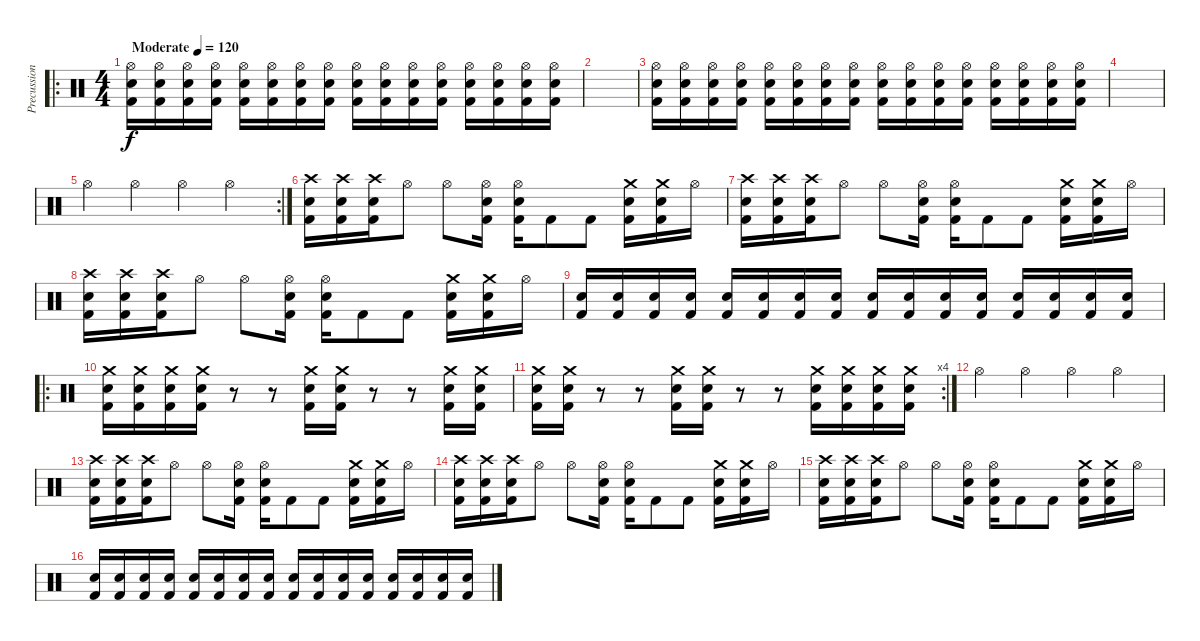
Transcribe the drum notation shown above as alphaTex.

\track ("Precussion" "Precussion") {instrument percussion}
\staff {score}
\articulation defaults
\ro
\ts (4 4)
\tempo (120 "Moderate")
\clef neutral
\ks c
("Hi-Hat (open)" "Kick (hit) 2" "Electric Snare (hit)").16{dy f} ("Hi-Hat (open)" "Kick (hit) 2" "Electric Snare (hit)").16 ("Hi-Hat (open)" "Kick (hit) 2" "Electric Snare (hit)").16 ("Hi-Hat (open)" "Kick (hit) 2" "Electric Snare (hit)").16 ("Hi-Hat (open)" "Kick (hit) 2" "Electric Snare (hit)").16 ("Hi-Hat (open)" "Kick (hit) 2" "Electric Snare (hit)").16 ("Hi-Hat (open)" "Kick (hit) 2" "Electric Snare (hit)").16 ("Hi-Hat (open)" "Kick (hit) 2" "Electric Snare (hit)").16 ("Hi-Hat (open)" "Kick (hit) 2" "Electric Snare (hit)").16 ("Hi-Hat (open)" "Kick (hit) 2" "Electric Snare (hit)").16 ("Hi-Hat (open)" "Kick (hit) 2" "Electric Snare (hit)").16 ("Hi-Hat (open)" "Kick (hit) 2" "Electric Snare (hit)").16 ("Hi-Hat (open)" "Kick (hit) 2" "Electric Snare (hit)").16 ("Hi-Hat (open)" "Kick (hit) 2" "Electric Snare (hit)").16 ("Hi-Hat (open)" "Kick (hit) 2" "Electric Snare (hit)").16 ("Hi-Hat (open)" "Kick (hit) 2" "Electric Snare (hit)").16 |
|
("Hi-Hat (open)" "Kick (hit) 2" "Electric Snare (hit)").16 ("Hi-Hat (open)" "Kick (hit) 2" "Electric Snare (hit)").16 ("Hi-Hat (open)" "Kick (hit) 2" "Electric Snare (hit)").16 ("Hi-Hat (open)" "Kick (hit) 2" "Electric Snare (hit)").16 ("Hi-Hat (open)" "Kick (hit) 2" "Electric Snare (hit)").16 ("Hi-Hat (open)" "Kick (hit) 2" "Electric Snare (hit)").16 ("Hi-Hat (open)" "Kick (hit) 2" "Electric Snare (hit)").16 ("Hi-Hat (open)" "Kick (hit) 2" "Electric Snare (hit)").16 ("Hi-Hat (open)" "Kick (hit) 2" "Electric Snare (hit)").16 ("Hi-Hat (open)" "Kick (hit) 2" "Electric Snare (hit)").16 ("Hi-Hat (open)" "Kick (hit) 2" "Electric Snare (hit)").16 ("Hi-Hat (open)" "Kick (hit) 2" "Electric Snare (hit)").16 ("Hi-Hat (open)" "Kick (hit) 2" "Electric Snare (hit)").16 ("Hi-Hat (open)" "Kick (hit) 2" "Electric Snare (hit)").16 ("Hi-Hat (open)" "Kick (hit) 2" "Electric Snare (hit)").16 ("Hi-Hat (open)" "Kick (hit) 2" "Electric Snare (hit)").16 |
|
\rc 2 "Hi-Hat (open)".4 "Hi-Hat (open)".4 "Hi-Hat (open)".4 "Hi-Hat (open)".4
|
("Kick (hit) 2" "Electric Snare (hit)" "Crash high (hit)").16 ("Kick (hit) 2" "Electric Snare (hit)" "Crash high (hit)").16 ("Crash high (hit)" "Kick (hit) 2" "Snare (hit) 2").16 "Hi-Hat (open)".8 "Hi-Hat (open)".8 ("Hi-Hat (open)" "Kick (hit) 2" "Electric Snare (hit)").16 ("Hi-Hat (open)" "Kick (hit) 2" "Electric Snare (hit)").16 "Kick (hit) 2".8 "Kick (hit) 2".8 ("Kick (hit) 2" "Electric Snare (hit)" "Crash medium (hit)").16 ("Kick (hit) 2" "Electric Snare (hit)" "Crash medium (hit)").16 "Hi-Hat (open)".16 |
("Kick (hit) 2" "Electric Snare (hit)" "Crash high (hit)").16 ("Kick (hit) 2" "Electric Snare (hit)" "Crash high (hit)").16 ("Crash high (hit)" "Kick (hit) 2" "Snare (hit) 2").16 "Hi-Hat (open)".8 "Hi-Hat (open)".8 ("Hi-Hat (open)" "Kick (hit) 2" "Electric Snare (hit)").16 ("Hi-Hat (open)" "Kick (hit) 2" "Electric Snare (hit)").16 "Kick (hit) 2".8 "Kick (hit) 2".8 ("Kick (hit) 2" "Electric Snare (hit)" "Crash medium (hit)").16 ("Kick (hit) 2" "Electric Snare (hit)" "Crash medium (hit)").16 "Hi-Hat (open)".16 |
("Kick (hit) 2" "Electric Snare (hit)" "Crash high (hit)").16 ("Kick (hit) 2" "Electric Snare (hit)" "Crash high (hit)").16 ("Crash high (hit)" "Kick (hit) 2" "Snare (hit) 2").16 "Hi-Hat (open)".8 "Hi-Hat (open)".8 ("Hi-Hat (open)" "Kick (hit) 2" "Electric Snare (hit)").16 ("Hi-Hat (open)" "Kick (hit) 2" "Electric Snare (hit)").16 "Kick (hit) 2".8 "Kick (hit) 2".8 ("Kick (hit) 2" "Electric Snare (hit)" "Crash medium (hit)").16 ("Kick (hit) 2" "Electric Snare (hit)" "Crash medium (hit)").16 "Hi-Hat (open)".16 |
("Kick (hit) 2" "Electric Snare (hit)").16 ("Kick (hit) 2" "Electric Snare (hit)").16 ("Kick (hit) 2" "Electric Snare (hit)").16 ("Kick (hit) 2" "Electric Snare (hit)").16 ("Kick (hit) 2" "Electric Snare (hit)").16 ("Kick (hit) 2" "Electric Snare (hit)").16 ("Kick (hit) 2" "Electric Snare (hit)").16 ("Kick (hit) 2" "Electric Snare (hit)").16 ("Kick (hit) 2" "Electric Snare (hit)").16 ("Kick (hit) 2" "Electric Snare (hit)").16 ("Kick (hit) 2" "Electric Snare (hit)").16 ("Kick (hit) 2" "Electric Snare (hit)").16 ("Kick (hit) 2" "Electric Snare (hit)").16 ("Kick (hit) 2" "Electric Snare (hit)").16 ("Kick (hit) 2" "Electric Snare (hit)").16 ("Kick (hit) 2" "Electric Snare (hit)").16 |
\ro
("Kick (hit) 2" "Crash medium (hit)" "Electric Snare (hit)").16 ("Kick (hit) 2" "Crash medium (hit)" "Electric Snare (hit)").16 ("Kick (hit) 2" "Crash medium (hit)" "Electric Snare (hit)").16 ("Kick (hit) 2" "Crash medium (hit)" "Electric Snare (hit)").16 r.8 r.8 ("Kick (hit) 2" "Crash medium (hit)" "Electric Snare (hit)").16 ("Kick (hit) 2" "Crash medium (hit)" "Electric Snare (hit)").16 r.8 r.8 ("Kick (hit) 2" "Crash medium (hit)" "Electric Snare (hit)").16 ("Kick (hit) 2" "Crash medium (hit)" "Electric Snare (hit)").16 |
\rc 4
("Kick (hit) 2" "Crash medium (hit)" "Electric Snare (hit)").16 ("Kick (hit) 2" "Crash medium (hit)" "Electric Snare (hit)").16 r.8 r.8 ("Kick (hit) 2" "Crash medium (hit)" "Electric Snare (hit)").16 ("Kick (hit) 2" "Crash medium (hit)" "Electric Snare (hit)").16 r.8 r.8 ("Kick (hit) 2" "Crash medium (hit)" "Electric Snare (hit)").16 ("Kick (hit) 2" "Crash medium (hit)" "Electric Snare (hit)").16 ("Kick (hit) 2" "Crash medium (hit)" "Electric Snare (hit)").16 ("Kick (hit) 2" "Crash medium (hit)" "Electric Snare (hit)").16 |
"Hi-Hat (open)".4 "Hi-Hat (open)".4 "Hi-Hat (open)".4 "Hi-Hat (open)".4 |
("Kick (hit) 2" "Electric Snare (hit)" "Crash high (hit)").16 ("Kick (hit) 2" "Electric Snare (hit)" "Crash high (hit)").16 ("Crash high (hit)" "Kick (hit) 2" "Snare (hit) 2").16 "Hi-Hat (open)".8 "Hi-Hat (open)".8 ("Hi-Hat (open)" "Kick (hit) 2" "Electric Snare (hit)").16 ("Hi-Hat (open)" "Kick (hit) 2" "Electric Snare (hit)").16 "Kick (hit) 2".8 "Kick (hit) 2".8 ("Kick (hit) 2" "Electric Snare (hit)" "Crash medium (hit)").16 ("Kick (hit) 2" "Electric Snare (hit)" "Crash medium (hit)").16 "Hi-Hat (open)".16 |
("Kick (hit) 2" "Electric Snare (hit)" "Crash high (hit)").16 ("Kick (hit) 2" "Electric Snare (hit)" "Crash high (hit)").16 ("Crash high (hit)" "Kick (hit) 2" "Snare (hit) 2").16 "Hi-Hat (open)".8 "Hi-Hat (open)".8 ("Hi-Hat (open)" "Kick (hit) 2" "Electric Snare (hit)").16 ("Hi-Hat (open)" "Kick (hit) 2" "Electric Snare (hit)").16 "Kick (hit) 2".8 "Kick (hit) 2".8 ("Kick (hit) 2" "Electric Snare (hit)" "Crash medium (hit)").16 ("Kick (hit) 2" "Electric Snare (hit)" "Crash medium (hit)").16 "Hi-Hat (open)".16 |
("Kick (hit) 2" "Electric Snare (hit)" "Crash high (hit)").16 ("Kick (hit) 2" "Electric Snare (hit)" "Crash high (hit)").16 ("Crash high (hit)" "Kick (hit) 2" "Snare (hit) 2").16 "Hi-Hat (open)".8 "Hi-Hat (open)".8 ("Hi-Hat (open)" "Kick (hit) 2" "Electric Snare (hit)").16 ("Hi-Hat (open)" "Kick (hit) 2" "Electric Snare (hit)").16 "Kick (hit) 2".8 "Kick (hit) 2".8 ("Kick (hit) 2" "Electric Snare (hit)" "Crash medium (hit)").16 ("Kick (hit) 2" "Electric Snare (hit)" "Crash medium (hit)").16 "Hi-Hat (open)".16 |
("Kick (hit) 2" "Electric Snare (hit)").16 ("Kick (hit) 2" "Electric Snare (hit)").16 ("Kick (hit) 2" "Electric Snare (hit)").16 ("Kick (hit) 2" "Electric Snare (hit)").16 ("Kick (hit) 2" "Electric Snare (hit)").16 ("Kick (hit) 2" "Electric Snare (hit)").16 ("Kick (hit) 2" "Electric Snare (hit)").16 ("Kick (hit) 2" "Electric Snare (hit)").16 ("Kick (hit) 2" "Electric Snare (hit)").16 ("Kick (hit) 2" "Electric Snare (hit)").16 ("Kick (hit) 2" "Electric Snare (hit)").16 ("Kick (hit) 2" "Electric Snare (hit)").16 ("Kick (hit) 2" "Electric Snare (hit)").16 ("Kick (hit) 2" "Electric Snare (hit)").16 ("Kick (hit) 2" "Electric Snare (hit)").16 ("Kick (hit) 2" "Electric Snare (hit)").16
